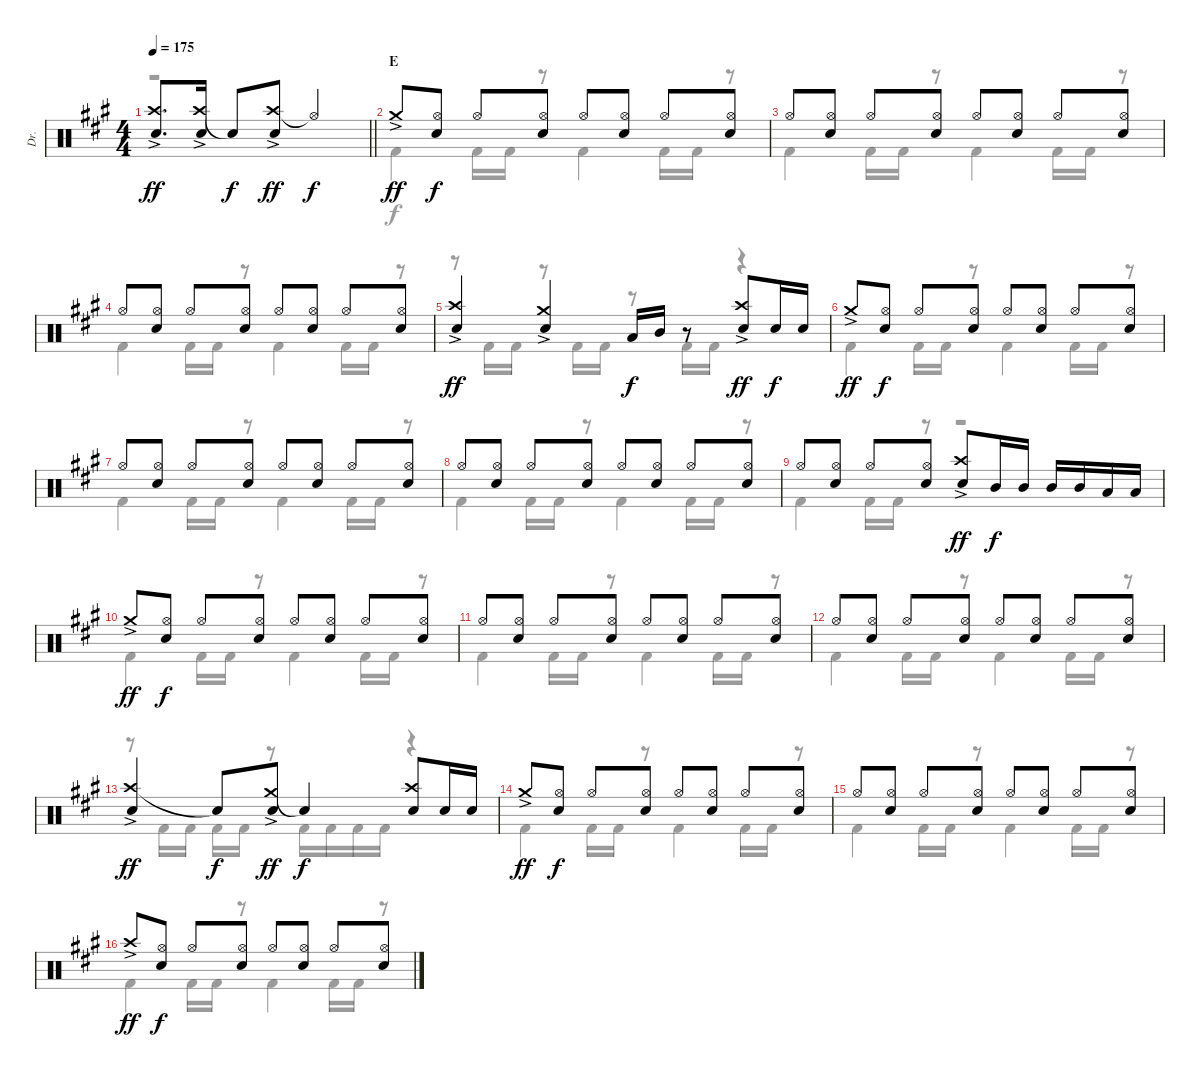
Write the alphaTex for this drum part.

\track ("Dr." "Dr.") {instrument percussion}
\staff {score}
\articulation defaults
\voice
\ts (4 4)
\tempo 175
\clef neutral
\barLineRight lightlight
\ks f#minor
("Crash high (hit)"{ac} "Electric Snare (hit)").8{d dy ff} ("Crash high (hit)"{ac} "Electric Snare (hit)").16 "Snare (hit)"{t}.8{dy f} ("Crash high (hit)"{ac} "Electric Snare (hit)").8{dy ff} "Hi-Hat (open)"{t}.2{dy f} |
\section ("" "E")
"Crash medium (hit)"{ac}.8{dy ff} ("Hi-Hat (open)" "Electric Snare (hit)").8{dy f} "Hi-Hat (open)".8 ("Hi-Hat (open)" "Electric Snare (hit)").8 "Hi-Hat (open)".8 ("Hi-Hat (open)" "Electric Snare (hit)").8 "Hi-Hat (open)".8 ("Hi-Hat (open)" "Electric Snare (hit)").8 |
"Hi-Hat (open)".8 ("Hi-Hat (open)" "Electric Snare (hit)").8 "Hi-Hat (open)".8 ("Hi-Hat (open)" "Electric Snare (hit)").8 "Hi-Hat (open)".8 ("Hi-Hat (open)" "Electric Snare (hit)").8 "Hi-Hat (open)".8 ("Hi-Hat (open)" "Electric Snare (hit)").8 |
"Hi-Hat (open)".8 ("Hi-Hat (open)" "Electric Snare (hit)").8 "Hi-Hat (open)".8 ("Hi-Hat (open)" "Electric Snare (hit)").8 "Hi-Hat (open)".8 ("Hi-Hat (open)" "Electric Snare (hit)").8 "Hi-Hat (open)".8 ("Hi-Hat (open)" "Electric Snare (hit)").8 |
("Crash high (hit)"{ac} "Electric Snare (hit)").4{dy ff} ("Crash medium (hit)"{ac} "Electric Snare (hit)").4 "Low Tom (hit)".16{dy f} "Mid Tom (hit)".16 r.8 ("Crash high (hit)"{ac} "Electric Snare (hit)").8{dy ff} "Electric Snare (hit)".16{dy f} "Electric Snare (hit)".16 |
"Crash medium (hit)"{ac}.8{dy ff} ("Hi-Hat (open)" "Electric Snare (hit)").8{dy f} "Hi-Hat (open)".8 ("Hi-Hat (open)" "Electric Snare (hit)").8 "Hi-Hat (open)".8 ("Hi-Hat (open)" "Electric Snare (hit)").8 "Hi-Hat (open)".8 ("Hi-Hat (open)" "Electric Snare (hit)").8 |
"Hi-Hat (open)".8 ("Hi-Hat (open)" "Electric Snare (hit)").8 "Hi-Hat (open)".8 ("Hi-Hat (open)" "Electric Snare (hit)").8 "Hi-Hat (open)".8 ("Hi-Hat (open)" "Electric Snare (hit)").8 "Hi-Hat (open)".8 ("Hi-Hat (open)" "Electric Snare (hit)").8 |
"Hi-Hat (open)".8 ("Hi-Hat (open)" "Electric Snare (hit)").8 "Hi-Hat (open)".8 ("Hi-Hat (open)" "Electric Snare (hit)").8 "Hi-Hat (open)".8 ("Hi-Hat (open)" "Electric Snare (hit)").8 "Hi-Hat (open)".8 ("Hi-Hat (open)" "Electric Snare (hit)").8 |
"Hi-Hat (open)".8 ("Hi-Hat (open)" "Electric Snare (hit)").8 "Hi-Hat (open)".8 ("Hi-Hat (open)" "Electric Snare (hit)").8 ("Crash high (hit)"{ac} "Electric Snare (hit)").8{dy ff} "Mid Tom (hit)".16{dy f} "Mid Tom (hit)".16 "Mid Tom (hit)".16 "Mid Tom (hit)".16 "Low Tom (hit)".16 "Low Tom (hit)".16 |
"Crash medium (hit)"{ac}.8{dy ff} ("Hi-Hat (open)" "Electric Snare (hit)").8{dy f} "Hi-Hat (open)".8 ("Hi-Hat (open)" "Electric Snare (hit)").8 "Hi-Hat (open)".8 ("Hi-Hat (open)" "Electric Snare (hit)").8 "Hi-Hat (open)".8 ("Hi-Hat (open)" "Electric Snare (hit)").8 |
"Hi-Hat (open)".8 ("Hi-Hat (open)" "Electric Snare (hit)").8 "Hi-Hat (open)".8 ("Hi-Hat (open)" "Electric Snare (hit)").8 "Hi-Hat (open)".8 ("Hi-Hat (open)" "Electric Snare (hit)").8 "Hi-Hat (open)".8 ("Hi-Hat (open)" "Electric Snare (hit)").8 |
"Hi-Hat (open)".8 ("Hi-Hat (open)" "Electric Snare (hit)").8 "Hi-Hat (open)".8 ("Hi-Hat (open)" "Electric Snare (hit)").8 "Hi-Hat (open)".8 ("Hi-Hat (open)" "Electric Snare (hit)").8 "Hi-Hat (open)".8 ("Hi-Hat (open)" "Electric Snare (hit)").8 |
("Crash high (hit)"{ac} "Electric Snare (hit)").4{dy ff} "Snare (hit)"{t}.8{dy f} ("Crash medium (hit)"{ac} "Electric Snare (hit)").8{dy ff} "Snare (hit)"{t}.4{dy f} ("Crash high (hit)" "Electric Snare (hit)").8 "Electric Snare (hit)".16 "Electric Snare (hit)".16 |
"Crash medium (hit)"{ac}.8{dy ff} ("Hi-Hat (open)" "Electric Snare (hit)").8{dy f} "Hi-Hat (open)".8 ("Hi-Hat (open)" "Electric Snare (hit)").8 "Hi-Hat (open)".8 ("Hi-Hat (open)" "Electric Snare (hit)").8 "Hi-Hat (open)".8 ("Hi-Hat (open)" "Electric Snare (hit)").8 |
"Hi-Hat (open)".8 ("Hi-Hat (open)" "Electric Snare (hit)").8 "Hi-Hat (open)".8 ("Hi-Hat (open)" "Electric Snare (hit)").8 "Hi-Hat (open)".8 ("Hi-Hat (open)" "Electric Snare (hit)").8 "Hi-Hat (open)".8 ("Hi-Hat (open)" "Electric Snare (hit)").8 |
"Crash high (hit)"{ac}.8{dy ff} ("Hi-Hat (open)" "Electric Snare (hit)").8{dy f} "Hi-Hat (open)".8 ("Hi-Hat (open)" "Electric Snare (hit)").8 "Hi-Hat (open)".8 ("Hi-Hat (open)" "Electric Snare (hit)").8 "Hi-Hat (open)".8 ("Hi-Hat (open)" "Electric Snare (hit)").8
\voice
\clef neutral
\ottava regular
\simile none
\barLineRight lightlight
\ks f#minor
r.1{dy f} |
"Kick (hit) 2".4 "Kick (hit) 2".16 "Kick (hit) 2".16 r.8 "Kick (hit) 2".4 "Kick (hit) 2".16 "Kick (hit) 2".16 r.8 |
"Kick (hit) 2".4 "Kick (hit) 2".16 "Kick (hit) 2".16 r.8 "Kick (hit) 2".4 "Kick (hit) 2".16 "Kick (hit) 2".16 r.8 |
"Kick (hit) 2".4 "Kick (hit) 2".16 "Kick (hit) 2".16 r.8 "Kick (hit) 2".4 "Kick (hit) 2".16 "Kick (hit) 2".16 r.8 |
r.8 "Kick (hit) 2".16 "Kick (hit) 2".16 r.8 "Kick (hit) 2".16 "Kick (hit) 2".16 r.8 "Kick (hit) 2".16 "Kick (hit) 2".16 r.4 |
"Kick (hit) 2".4 "Kick (hit) 2".16 "Kick (hit) 2".16 r.8 "Kick (hit) 2".4 "Kick (hit) 2".16 "Kick (hit) 2".16 r.8 |
"Kick (hit) 2".4 "Kick (hit) 2".16 "Kick (hit) 2".16 r.8 "Kick (hit) 2".4 "Kick (hit) 2".16 "Kick (hit) 2".16 r.8 |
"Kick (hit) 2".4 "Kick (hit) 2".16 "Kick (hit) 2".16 r.8 "Kick (hit) 2".4 "Kick (hit) 2".16 "Kick (hit) 2".16 r.8 |
"Kick (hit) 2".4 "Kick (hit) 2".16 "Kick (hit) 2".16 r.8 r.2 |
"Kick (hit) 2".4 "Kick (hit) 2".16 "Kick (hit) 2".16 r.8 "Kick (hit) 2".4 "Kick (hit) 2".16 "Kick (hit) 2".16 r.8 |
"Kick (hit) 2".4 "Kick (hit) 2".16 "Kick (hit) 2".16 r.8 "Kick (hit) 2".4 "Kick (hit) 2".16 "Kick (hit) 2".16 r.8 |
"Kick (hit) 2".4 "Kick (hit) 2".16 "Kick (hit) 2".16 r.8 "Kick (hit) 2".4 "Kick (hit) 2".16 "Kick (hit) 2".16 r.8 |
r.8 "Kick (hit) 2".16 "Kick (hit) 2".16 "Kick (hit) 2".16 "Kick (hit) 2".16 r.8 "Kick (hit) 2".16 "Kick (hit) 2".16 "Kick (hit) 2".16 "Kick (hit) 2".16 r.4 |
"Kick (hit) 2".4 "Kick (hit) 2".16 "Kick (hit) 2".16 r.8 "Kick (hit) 2".4 "Kick (hit) 2".16 "Kick (hit) 2".16 r.8 |
"Kick (hit) 2".4 "Kick (hit) 2".16 "Kick (hit) 2".16 r.8 "Kick (hit) 2".4 "Kick (hit) 2".16 "Kick (hit) 2".16 r.8 |
"Kick (hit) 2".4 "Kick (hit) 2".16 "Kick (hit) 2".16 r.8 "Kick (hit) 2".4 "Kick (hit) 2".16 "Kick (hit) 2".16 r.8
